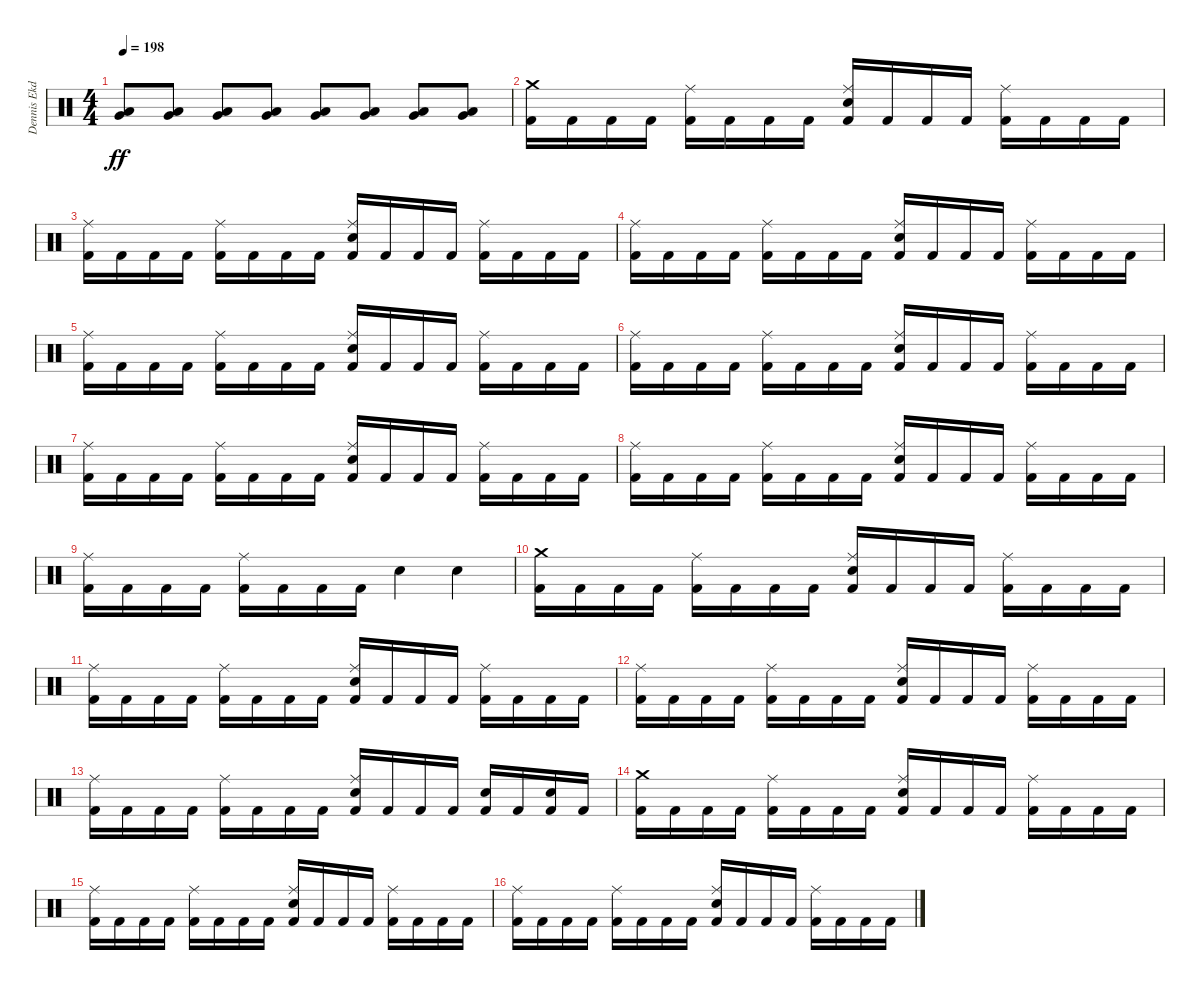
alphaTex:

\track ("Dennis Ekdahl      (Drums)" "Dennis Ekd") {instrument percussion}
\staff {score}
\articulation defaults
\ts (4 4)
\tempo 198
\clef neutral
\ks c
("Low Tom (hit)" "Very Low Tom (hit)").8{dy ff} ("Low Tom (hit)" "Very Low Tom (hit)").8 ("Low Tom (hit)" "Very Low Tom (hit)").8 ("Low Tom (hit)" "Very Low Tom (hit)").8 ("Very Low Tom (hit)" "Low Floor Tom (hit)").8 ("Very Low Tom (hit)" "Low Floor Tom (hit)").8 ("Very Low Tom (hit)" "Low Floor Tom (hit)").8 ("Very Low Tom (hit)" "Low Floor Tom (hit)").8 |
("Crash medium (hit)" "Kick (hit) 2").16 "Kick (hit) 2".16 "Kick (hit) 2".16 "Kick (hit) 2".16 ("Ride (middle)" "Kick (hit) 2").16 "Kick (hit) 2".16 "Kick (hit) 2".16 "Kick (hit) 2".16 ("Ride (middle)" "Electric Snare (hit)" "Kick (hit) 2").16 "Kick (hit) 2".16 "Kick (hit) 2".16 "Kick (hit) 2".16 ("Ride (middle)" "Kick (hit) 2").16 "Kick (hit) 2".16 "Kick (hit) 2".16 "Kick (hit) 2".16 |
("Ride (middle)" "Kick (hit) 2").16 "Kick (hit) 2".16 "Kick (hit) 2".16 "Kick (hit) 2".16 ("Ride (middle)" "Kick (hit) 2").16 "Kick (hit) 2".16 "Kick (hit) 2".16 "Kick (hit) 2".16 ("Ride (middle)" "Electric Snare (hit)" "Kick (hit) 2").16 "Kick (hit) 2".16 "Kick (hit) 2".16 "Kick (hit) 2".16 ("Ride (middle)" "Kick (hit) 2").16 "Kick (hit) 2".16 "Kick (hit) 2".16 "Kick (hit) 2".16 |
("Ride (middle)" "Kick (hit) 2").16 "Kick (hit) 2".16 "Kick (hit) 2".16 "Kick (hit) 2".16 ("Ride (middle)" "Kick (hit) 2").16 "Kick (hit) 2".16 "Kick (hit) 2".16 "Kick (hit) 2".16 ("Ride (middle)" "Electric Snare (hit)" "Kick (hit) 2").16 "Kick (hit) 2".16 "Kick (hit) 2".16 "Kick (hit) 2".16 ("Ride (middle)" "Kick (hit) 2").16 "Kick (hit) 2".16 "Kick (hit) 2".16 "Kick (hit) 2".16 |
("Ride (middle)" "Kick (hit) 2").16 "Kick (hit) 2".16 "Kick (hit) 2".16 "Kick (hit) 2".16 ("Ride (middle)" "Kick (hit) 2").16 "Kick (hit) 2".16 "Kick (hit) 2".16 "Kick (hit) 2".16 ("Ride (middle)" "Electric Snare (hit)" "Kick (hit) 2").16 "Kick (hit) 2".16 "Kick (hit) 2".16 "Kick (hit) 2".16 ("Ride (middle)" "Kick (hit) 2").16 "Kick (hit) 2".16 "Kick (hit) 2".16 "Kick (hit) 2".16 |
("Ride (middle)" "Kick (hit) 2").16 "Kick (hit) 2".16 "Kick (hit) 2".16 "Kick (hit) 2".16 ("Ride (middle)" "Kick (hit) 2").16 "Kick (hit) 2".16 "Kick (hit) 2".16 "Kick (hit) 2".16 ("Ride (middle)" "Electric Snare (hit)" "Kick (hit) 2").16 "Kick (hit) 2".16 "Kick (hit) 2".16 "Kick (hit) 2".16 ("Ride (middle)" "Kick (hit) 2").16 "Kick (hit) 2".16 "Kick (hit) 2".16 "Kick (hit) 2".16 |
("Ride (middle)" "Kick (hit) 2").16 "Kick (hit) 2".16 "Kick (hit) 2".16 "Kick (hit) 2".16 ("Ride (middle)" "Kick (hit) 2").16 "Kick (hit) 2".16 "Kick (hit) 2".16 "Kick (hit) 2".16 ("Ride (middle)" "Electric Snare (hit)" "Kick (hit) 2").16 "Kick (hit) 2".16 "Kick (hit) 2".16 "Kick (hit) 2".16 ("Ride (middle)" "Kick (hit) 2").16 "Kick (hit) 2".16 "Kick (hit) 2".16 "Kick (hit) 2".16 |
("Ride (middle)" "Kick (hit) 2").16 "Kick (hit) 2".16 "Kick (hit) 2".16 "Kick (hit) 2".16 ("Ride (middle)" "Kick (hit) 2").16 "Kick (hit) 2".16 "Kick (hit) 2".16 "Kick (hit) 2".16 ("Ride (middle)" "Electric Snare (hit)" "Kick (hit) 2").16 "Kick (hit) 2".16 "Kick (hit) 2".16 "Kick (hit) 2".16 ("Ride (middle)" "Kick (hit) 2").16 "Kick (hit) 2".16 "Kick (hit) 2".16 "Kick (hit) 2".16 |
("Ride (middle)" "Kick (hit) 2").16 "Kick (hit) 2".16 "Kick (hit) 2".16 "Kick (hit) 2".16 ("Ride (middle)" "Kick (hit) 2").16 "Kick (hit) 2".16 "Kick (hit) 2".16 "Kick (hit) 2".16 "Electric Snare (hit)".4 "Electric Snare (hit)".4 |
("Crash medium (hit)" "Kick (hit) 2").16 "Kick (hit) 2".16 "Kick (hit) 2".16 "Kick (hit) 2".16 ("Ride (middle)" "Kick (hit) 2").16 "Kick (hit) 2".16 "Kick (hit) 2".16 "Kick (hit) 2".16 ("Ride (middle)" "Electric Snare (hit)" "Kick (hit) 2").16 "Kick (hit) 2".16 "Kick (hit) 2".16 "Kick (hit) 2".16 ("Ride (middle)" "Kick (hit) 2").16 "Kick (hit) 2".16 "Kick (hit) 2".16 "Kick (hit) 2".16 |
("Ride (middle)" "Kick (hit) 2").16 "Kick (hit) 2".16 "Kick (hit) 2".16 "Kick (hit) 2".16 ("Ride (middle)" "Kick (hit) 2").16 "Kick (hit) 2".16 "Kick (hit) 2".16 "Kick (hit) 2".16 ("Ride (middle)" "Electric Snare (hit)" "Kick (hit) 2").16 "Kick (hit) 2".16 "Kick (hit) 2".16 "Kick (hit) 2".16 ("Ride (middle)" "Kick (hit) 2").16 "Kick (hit) 2".16 "Kick (hit) 2".16 "Kick (hit) 2".16 |
("Ride (middle)" "Kick (hit) 2").16 "Kick (hit) 2".16 "Kick (hit) 2".16 "Kick (hit) 2".16 ("Ride (middle)" "Kick (hit) 2").16 "Kick (hit) 2".16 "Kick (hit) 2".16 "Kick (hit) 2".16 ("Ride (middle)" "Electric Snare (hit)" "Kick (hit) 2").16 "Kick (hit) 2".16 "Kick (hit) 2".16 "Kick (hit) 2".16 ("Ride (middle)" "Kick (hit) 2").16 "Kick (hit) 2".16 "Kick (hit) 2".16 "Kick (hit) 2".16 |
("Ride (middle)" "Kick (hit) 2").16 "Kick (hit) 2".16 "Kick (hit) 2".16 "Kick (hit) 2".16 ("Ride (middle)" "Kick (hit) 2").16 "Kick (hit) 2".16 "Kick (hit) 2".16 "Kick (hit) 2".16 ("Ride (middle)" "Electric Snare (hit)" "Kick (hit) 2").16 "Kick (hit) 2".16 "Kick (hit) 2".16 "Kick (hit) 2".16 ("Electric Snare (hit)" "Kick (hit) 2").16 "Kick (hit) 2".16 ("Electric Snare (hit)" "Kick (hit) 2").16 "Kick (hit) 2".16 |
("Crash medium (hit)" "Kick (hit) 2").16 "Kick (hit) 2".16 "Kick (hit) 2".16 "Kick (hit) 2".16 ("Ride (middle)" "Kick (hit) 2").16 "Kick (hit) 2".16 "Kick (hit) 2".16 "Kick (hit) 2".16 ("Ride (middle)" "Electric Snare (hit)" "Kick (hit) 2").16 "Kick (hit) 2".16 "Kick (hit) 2".16 "Kick (hit) 2".16 ("Ride (middle)" "Kick (hit) 2").16 "Kick (hit) 2".16 "Kick (hit) 2".16 "Kick (hit) 2".16 |
("Ride (middle)" "Kick (hit) 2").16 "Kick (hit) 2".16 "Kick (hit) 2".16 "Kick (hit) 2".16 ("Ride (middle)" "Kick (hit) 2").16 "Kick (hit) 2".16 "Kick (hit) 2".16 "Kick (hit) 2".16 ("Ride (middle)" "Electric Snare (hit)" "Kick (hit) 2").16 "Kick (hit) 2".16 "Kick (hit) 2".16 "Kick (hit) 2".16 ("Ride (middle)" "Kick (hit) 2").16 "Kick (hit) 2".16 "Kick (hit) 2".16 "Kick (hit) 2".16 |
("Ride (middle)" "Kick (hit) 2").16 "Kick (hit) 2".16 "Kick (hit) 2".16 "Kick (hit) 2".16 ("Ride (middle)" "Kick (hit) 2").16 "Kick (hit) 2".16 "Kick (hit) 2".16 "Kick (hit) 2".16 ("Ride (middle)" "Electric Snare (hit)" "Kick (hit) 2").16 "Kick (hit) 2".16 "Kick (hit) 2".16 "Kick (hit) 2".16 ("Ride (middle)" "Kick (hit) 2").16 "Kick (hit) 2".16 "Kick (hit) 2".16 "Kick (hit) 2".16
